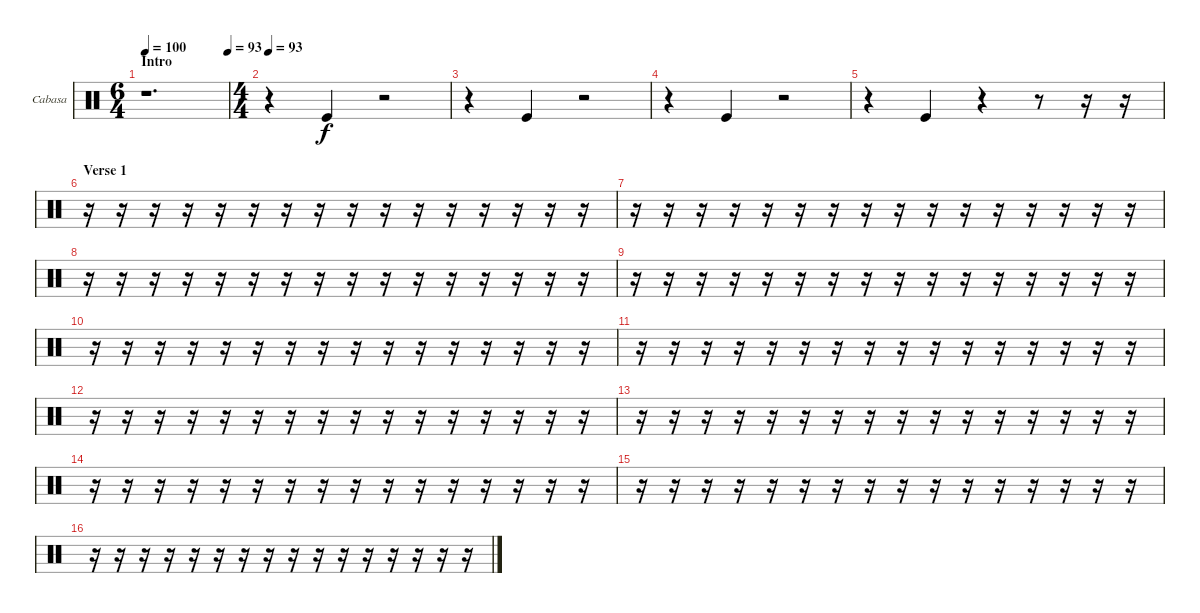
\bracketExtendMode groupsimilarinstruments
\firstSystemTrackNameOrientation horizontal
\otherSystemsTrackNameOrientation horizontal
\track ("Cabasa" "Cabasa") {instrument percussion}
\staff {score}
\articulation defaults
\ts (6 4)
\section ("" "Intro")
\tempo 100
\tempo (93 1)
\clef neutral
\ks c
r.1{d dy f} |
\ts (4 4)
\tempo 93
r.4 "Kick (hit)".4 r.2 |
r.4 "Kick (hit)".4 r.2 |
r.4 "Kick (hit)".4 r.2 |
r.4 "Kick (hit)".4 r.4 r.8 r.16 r.16 |
\section ("" "Verse 1")
r.16 r.16 r.16 r.16 r.16 r.16 r.16 r.16 r.16 r.16 r.16 r.16 r.16 r.16 r.16 r.16 |
r.16 r.16 r.16 r.16 r.16 r.16 r.16 r.16 r.16 r.16 r.16 r.16 r.16 r.16 r.16 r.16 |
r.16 r.16 r.16 r.16 r.16 r.16 r.16 r.16 r.16 r.16 r.16 r.16 r.16 r.16 r.16 r.16 |
r.16 r.16 r.16 r.16 r.16 r.16 r.16 r.16 r.16 r.16 r.16 r.16 r.16 r.16 r.16 r.16 |
r.16 r.16 r.16 r.16 r.16 r.16 r.16 r.16 r.16 r.16 r.16 r.16 r.16 r.16 r.16 r.16 |
r.16 r.16 r.16 r.16 r.16 r.16 r.16 r.16 r.16 r.16 r.16 r.16 r.16 r.16 r.16 r.16 |
r.16 r.16 r.16 r.16 r.16 r.16 r.16 r.16 r.16 r.16 r.16 r.16 r.16 r.16 r.16 r.16 |
r.16 r.16 r.16 r.16 r.16 r.16 r.16 r.16 r.16 r.16 r.16 r.16 r.16 r.16 r.16 r.16 |
r.16 r.16 r.16 r.16 r.16 r.16 r.16 r.16 r.16 r.16 r.16 r.16 r.16 r.16 r.16 r.16 |
r.16 r.16 r.16 r.16 r.16 r.16 r.16 r.16 r.16 r.16 r.16 r.16 r.16 r.16 r.16 r.16 |
r.16 r.16 r.16 r.16 r.16 r.16 r.16 r.16 r.16 r.16 r.16 r.16 r.16 r.16 r.16 r.16
